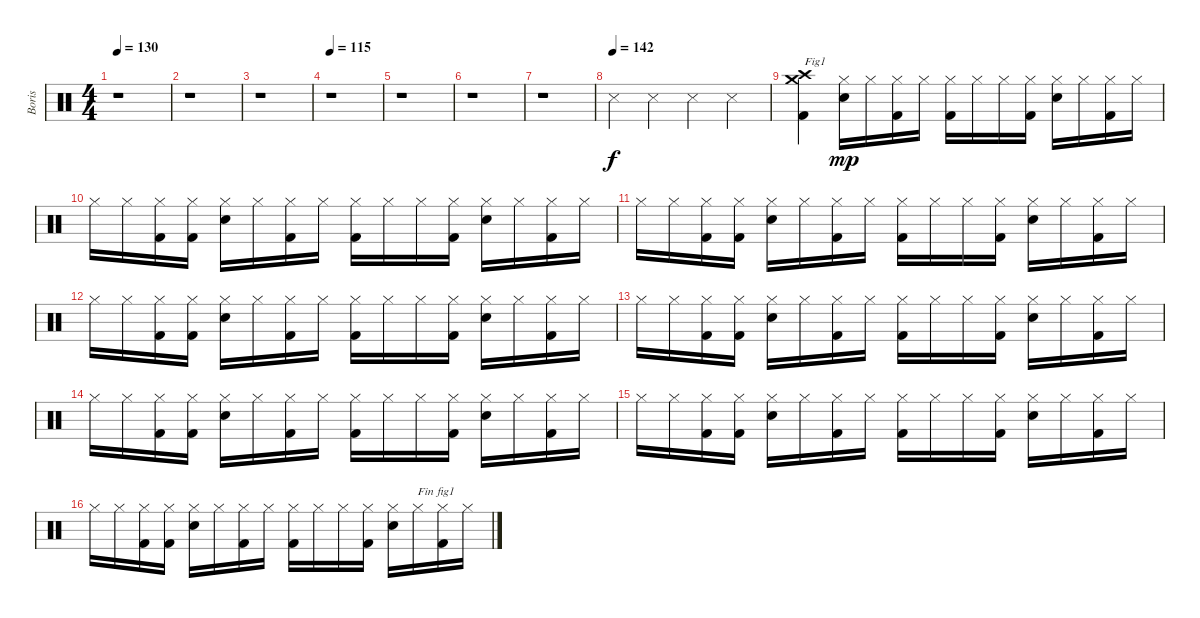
\track ("Boris" "Boris") {instrument percussion}
\staff {score}
\articulation defaults
\ts (4 4)
\tempo 130
\clef neutral
\ks c
r.1{dy f} |
r.1 |
r.1 |
\tempo 115
r.1 |
r.1 |
r.1 |
r.1 |
\tempo (142)
"Metronome (hit)".4 "Metronome (hit)".4 "Metronome (hit)".4 "Metronome (hit)".4 |
("Kick (hit) 2" "Crash high (hit)" "Crash medium (hit)").4{txt "Fig1"} ("Snare (hit) 2" "Hi-Hat (closed)").16{dy mp} "Hi-Hat (closed)".16 ("Kick (hit) 2" "Hi-Hat (closed)").16 "Hi-Hat (closed)".16 ("Kick (hit) 2" "Hi-Hat (closed)").16 "Hi-Hat (closed)".16 "Hi-Hat (closed)".16 ("Kick (hit) 2" "Hi-Hat (closed)").16 ("Snare (hit) 2" "Hi-Hat (closed)").16 "Hi-Hat (closed)".16 ("Kick (hit) 2" "Hi-Hat (closed)").16 "Hi-Hat (closed)".16 |
"Hi-Hat (closed)".16 "Hi-Hat (closed)".16 ("Kick (hit) 2" "Hi-Hat (closed)").16 ("Kick (hit) 2" "Hi-Hat (closed)").16 ("Snare (hit) 2" "Hi-Hat (closed)").16 "Hi-Hat (closed)".16 ("Kick (hit) 2" "Hi-Hat (closed)").16 "Hi-Hat (closed)".16 ("Kick (hit) 2" "Hi-Hat (closed)").16 "Hi-Hat (closed)".16 "Hi-Hat (closed)".16 ("Kick (hit) 2" "Hi-Hat (closed)").16 ("Snare (hit) 2" "Hi-Hat (closed)").16 "Hi-Hat (closed)".16 ("Kick (hit) 2" "Hi-Hat (closed)").16 "Hi-Hat (closed)".16 |
"Hi-Hat (closed)".16 "Hi-Hat (closed)".16 ("Kick (hit) 2" "Hi-Hat (closed)").16 ("Kick (hit) 2" "Hi-Hat (closed)").16 ("Snare (hit) 2" "Hi-Hat (closed)").16 "Hi-Hat (closed)".16 ("Kick (hit) 2" "Hi-Hat (closed)").16 "Hi-Hat (closed)".16 ("Kick (hit) 2" "Hi-Hat (closed)").16 "Hi-Hat (closed)".16 "Hi-Hat (closed)".16 ("Kick (hit) 2" "Hi-Hat (closed)").16 ("Snare (hit) 2" "Hi-Hat (closed)").16 "Hi-Hat (closed)".16 ("Kick (hit) 2" "Hi-Hat (closed)").16 "Hi-Hat (closed)".16 |
"Hi-Hat (closed)".16 "Hi-Hat (closed)".16 ("Kick (hit) 2" "Hi-Hat (closed)").16 ("Kick (hit) 2" "Hi-Hat (closed)").16 ("Snare (hit) 2" "Hi-Hat (closed)").16 "Hi-Hat (closed)".16 ("Kick (hit) 2" "Hi-Hat (closed)").16 "Hi-Hat (closed)".16 ("Kick (hit) 2" "Hi-Hat (closed)").16 "Hi-Hat (closed)".16 "Hi-Hat (closed)".16 ("Kick (hit) 2" "Hi-Hat (closed)").16 ("Snare (hit) 2" "Hi-Hat (closed)").16 "Hi-Hat (closed)".16 ("Kick (hit) 2" "Hi-Hat (closed)").16 "Hi-Hat (closed)".16 |
"Hi-Hat (closed)".16 "Hi-Hat (closed)".16 ("Kick (hit) 2" "Hi-Hat (closed)").16 ("Kick (hit) 2" "Hi-Hat (closed)").16 ("Snare (hit) 2" "Hi-Hat (closed)").16 "Hi-Hat (closed)".16 ("Kick (hit) 2" "Hi-Hat (closed)").16 "Hi-Hat (closed)".16 ("Kick (hit) 2" "Hi-Hat (closed)").16 "Hi-Hat (closed)".16 "Hi-Hat (closed)".16 ("Kick (hit) 2" "Hi-Hat (closed)").16 ("Snare (hit) 2" "Hi-Hat (closed)").16 "Hi-Hat (closed)".16 ("Kick (hit) 2" "Hi-Hat (closed)").16 "Hi-Hat (closed)".16 |
"Hi-Hat (closed)".16 "Hi-Hat (closed)".16 ("Kick (hit) 2" "Hi-Hat (closed)").16 ("Kick (hit) 2" "Hi-Hat (closed)").16 ("Snare (hit) 2" "Hi-Hat (closed)").16 "Hi-Hat (closed)".16 ("Kick (hit) 2" "Hi-Hat (closed)").16 "Hi-Hat (closed)".16 ("Kick (hit) 2" "Hi-Hat (closed)").16 "Hi-Hat (closed)".16 "Hi-Hat (closed)".16 ("Kick (hit) 2" "Hi-Hat (closed)").16 ("Snare (hit) 2" "Hi-Hat (closed)").16 "Hi-Hat (closed)".16 ("Kick (hit) 2" "Hi-Hat (closed)").16 "Hi-Hat (closed)".16 |
"Hi-Hat (closed)".16 "Hi-Hat (closed)".16 ("Kick (hit) 2" "Hi-Hat (closed)").16 ("Kick (hit) 2" "Hi-Hat (closed)").16 ("Snare (hit) 2" "Hi-Hat (closed)").16 "Hi-Hat (closed)".16 ("Kick (hit) 2" "Hi-Hat (closed)").16 "Hi-Hat (closed)".16 ("Kick (hit) 2" "Hi-Hat (closed)").16 "Hi-Hat (closed)".16 "Hi-Hat (closed)".16 ("Kick (hit) 2" "Hi-Hat (closed)").16 ("Snare (hit) 2" "Hi-Hat (closed)").16 "Hi-Hat (closed)".16 ("Kick (hit) 2" "Hi-Hat (closed)").16 "Hi-Hat (closed)".16 |
"Hi-Hat (closed)".16 "Hi-Hat (closed)".16 ("Kick (hit) 2" "Hi-Hat (closed)").16 ("Kick (hit) 2" "Hi-Hat (closed)").16 ("Snare (hit) 2" "Hi-Hat (closed)").16 "Hi-Hat (closed)".16 ("Kick (hit) 2" "Hi-Hat (closed)").16 "Hi-Hat (closed)".16 ("Kick (hit) 2" "Hi-Hat (closed)").16 "Hi-Hat (closed)".16 "Hi-Hat (closed)".16 ("Kick (hit) 2" "Hi-Hat (closed)").16 ("Snare (hit) 2" "Hi-Hat (closed)").16 "Hi-Hat (closed)".16{txt "Fin fig1"} ("Kick (hit) 2" "Hi-Hat (closed)").16 "Hi-Hat (closed)".16
